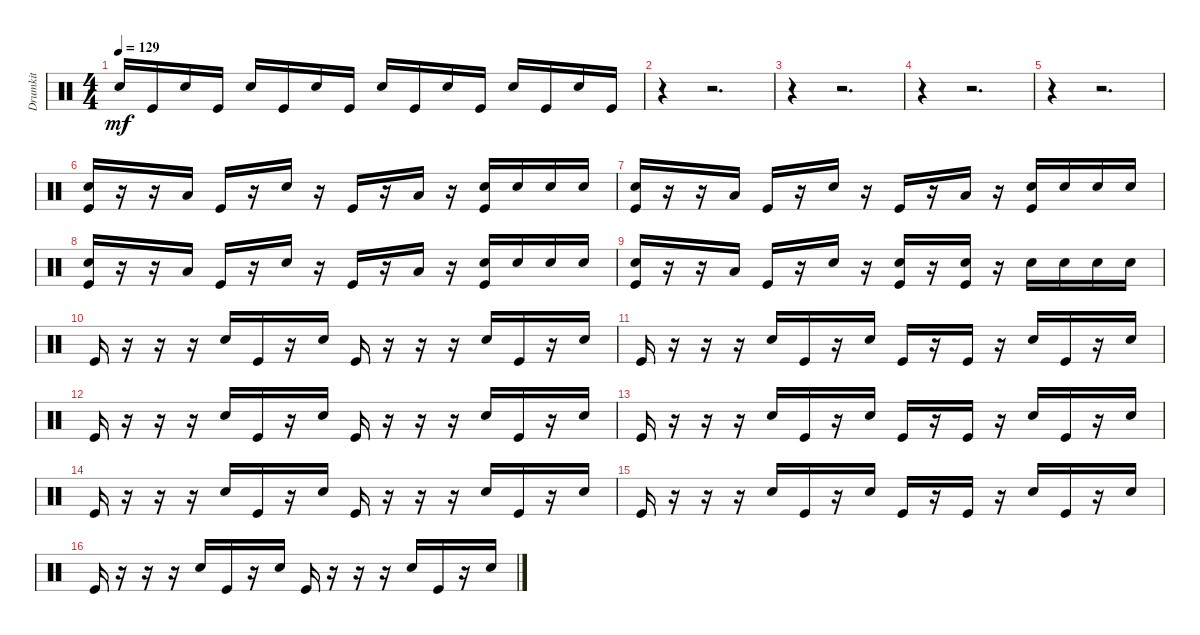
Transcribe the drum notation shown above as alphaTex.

\track ("Drumkit" "Drumkit") {instrument percussion}
\staff {score}
\articulation defaults
\ts (4 4)
\tempo 129
\clef neutral
\ks c "Snare (hit) 2".16{dy mf} "Kick (hit)".16 "Snare (hit) 2".16 "Kick (hit)".16 "Snare (hit) 2".16 "Kick (hit)".16 "Snare (hit) 2".16 "Kick (hit)".16 "Snare (hit) 2".16 "Kick (hit)".16 "Snare (hit) 2".16 "Kick (hit)".16 "Snare (hit) 2".16 "Kick (hit)".16 "Snare (hit) 2".16 "Kick (hit)".16
|
r.4 r.2{d} |
r.4 r.2{d} |
r.4 r.2{d} |
r.4 r.2{d} |
("Kick (hit)" "Snare (hit) 2").16 r.16 r.16 "Low Tom (hit)".16 "Kick (hit)".16 r.16 "Snare (hit) 2".16 r.16 "Kick (hit)".16 r.16 "Low Floor Tom (hit)".16 r.16 ("Kick (hit)" "Snare (hit) 2").16 "Snare (hit) 2".16 "Snare (hit) 2".16 "Snare (hit) 2".16 |
("Kick (hit)" "Snare (hit) 2").16 r.16 r.16 "Low Tom (hit)".16 "Kick (hit)".16 r.16 "Snare (hit) 2".16 r.16 "Kick (hit)".16 r.16 "Low Floor Tom (hit)".16 r.16 ("Kick (hit)" "Snare (hit) 2").16 "Snare (hit) 2".16 "Snare (hit) 2".16 "Snare (hit) 2".16 |
("Kick (hit)" "Snare (hit) 2").16 r.16 r.16 "Low Tom (hit)".16 "Kick (hit)".16 r.16 "Snare (hit) 2".16 r.16 "Kick (hit)".16 r.16 "Low Floor Tom (hit)".16 r.16 ("Kick (hit)" "Snare (hit) 2").16 "Snare (hit) 2".16 "Snare (hit) 2".16 "Snare (hit) 2".16 |
("Kick (hit)" "Snare (hit) 2").16 r.16 r.16 "Low Tom (hit)".16 "Kick (hit)".16 r.16 "Snare (hit) 2".16 r.16 ("Snare (hit) 2" "Kick (hit)").16 r.16 ("Snare (hit) 2" "Kick (hit)").16 r.16 "Snare (hit) 2".16 "Snare (hit) 2".16 "Snare (hit) 2".16 "Snare (hit) 2".16 |
"Kick (hit)".16 r.16 r.16 r.16 "Snare (hit) 2".16 "Kick (hit)".16 r.16 "Snare (hit) 2".16 "Kick (hit)".16 r.16 r.16 r.16 "Snare (hit) 2".16 "Kick (hit)".16 r.16 "Snare (hit) 2".16 |
"Kick (hit)".16 r.16 r.16 r.16 "Snare (hit) 2".16 "Kick (hit)".16 r.16 "Snare (hit) 2".16 "Kick (hit)".16 r.16 "Kick (hit)".16 r.16 "Snare (hit) 2".16 "Kick (hit)".16 r.16 "Snare (hit) 2".16 |
"Kick (hit)".16 r.16 r.16 r.16 "Snare (hit) 2".16 "Kick (hit)".16 r.16 "Snare (hit) 2".16 "Kick (hit)".16 r.16 r.16 r.16 "Snare (hit) 2".16 "Kick (hit)".16 r.16 "Snare (hit) 2".16 |
"Kick (hit)".16 r.16 r.16 r.16 "Snare (hit) 2".16 "Kick (hit)".16 r.16 "Snare (hit) 2".16 "Kick (hit)".16 r.16 "Kick (hit)".16 r.16 "Snare (hit) 2".16 "Kick (hit)".16 r.16 "Snare (hit) 2".16 |
"Kick (hit)".16 r.16 r.16 r.16 "Snare (hit) 2".16 "Kick (hit)".16 r.16 "Snare (hit) 2".16 "Kick (hit)".16 r.16 r.16 r.16 "Snare (hit) 2".16 "Kick (hit)".16 r.16 "Snare (hit) 2".16 |
"Kick (hit)".16 r.16 r.16 r.16 "Snare (hit) 2".16 "Kick (hit)".16 r.16 "Snare (hit) 2".16 "Kick (hit)".16 r.16 "Kick (hit)".16 r.16 "Snare (hit) 2".16 "Kick (hit)".16 r.16 "Snare (hit) 2".16 |
"Kick (hit)".16 r.16 r.16 r.16 "Snare (hit) 2".16 "Kick (hit)".16 r.16 "Snare (hit) 2".16 "Kick (hit)".16 r.16 r.16 r.16 "Snare (hit) 2".16 "Kick (hit)".16 r.16 "Snare (hit) 2".16
